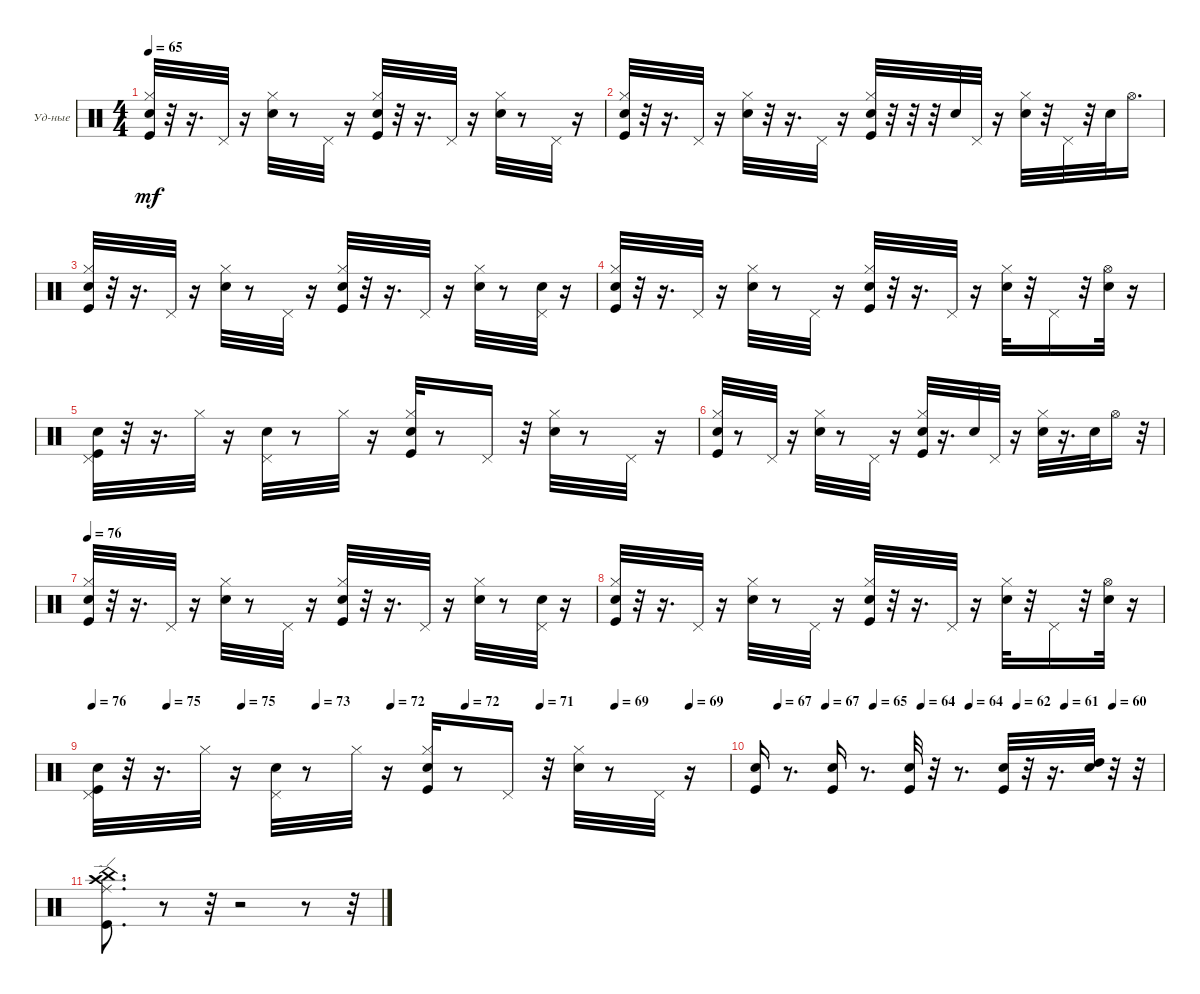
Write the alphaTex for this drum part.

\bracketExtendMode groupsimilarinstruments
\firstSystemTrackNameOrientation horizontal
\otherSystemsTrackNameOrientation horizontal
\track ("Ударные" "Уд-ные") {instrument percussion}
\staff {score}
\articulation defaults
\ts (4 4)
\tempo 65
\clef neutral
\ks c
("Kick (hit)" "Hi-Hat (closed)" "Snare (hit) 2").32{dy mf} r.32 r.16{d} "Pedal Hi-Hat (hit)".32 r.16 ("Hi-Hat (closed)" "Snare (hit) 2").32 r.8 "Pedal Hi-Hat (hit)".32 r.16 ("Kick (hit)" "Hi-Hat (closed)" "Snare (hit) 2").32 r.32 r.16{d} "Pedal Hi-Hat (hit)".32 r.16 ("Hi-Hat (closed)" "Snare (hit) 2").32 r.8 "Pedal Hi-Hat (hit)".32 r.16 |
("Kick (hit)" "Hi-Hat (closed)" "Snare (hit) 2").32 r.32 r.16{d} "Pedal Hi-Hat (hit)".32 r.16 ("Hi-Hat (closed)" "Snare (hit) 2").32 r.32 r.16{d} "Pedal Hi-Hat (hit)".32 r.16 ("Hi-Hat (closed)" "Kick (hit)" "Snare (hit) 2").32 r.32 r.32 r.32 "Snare (hit) 2".32 "Pedal Hi-Hat (hit)".32 r.16 ("Hi-Hat (closed)" "Snare (hit) 2").32 r.32 "Pedal Hi-Hat (hit)".32 r.32 "Snare (hit) 2".32 "Hi-Hat (open)".16{d} |
("Kick (hit)" "Hi-Hat (closed)" "Snare (hit) 2").32 r.32 r.16{d} "Pedal Hi-Hat (hit)".32 r.16 ("Hi-Hat (closed)" "Snare (hit) 2").32 r.8 "Pedal Hi-Hat (hit)".32 r.16 ("Hi-Hat (closed)" "Kick (hit)" "Snare (hit) 2").32 r.32 r.16{d} "Pedal Hi-Hat (hit)".32 r.16 ("Hi-Hat (closed)" "Snare (hit) 2").32 r.8 ("Pedal Hi-Hat (hit)" "Snare (hit) 2").32 r.16 |
("Kick (hit)" "Hi-Hat (closed)" "Snare (hit) 2").32 r.32 r.16{d} "Pedal Hi-Hat (hit)".32 r.16 ("Hi-Hat (closed)" "Snare (hit) 2").32 r.8 "Pedal Hi-Hat (hit)".32 r.16 ("Kick (hit)" "Hi-Hat (closed)" "Snare (hit) 2").32 r.32 r.16{d} "Pedal Hi-Hat (hit)".32 r.16 ("Hi-Hat (closed)" "Snare (hit) 2").32 r.32 "Pedal Hi-Hat (hit)".16 r.32 ("Hi-Hat (open)" "Snare (hit) 2").32 r.16 |
("Kick (hit)" "Pedal Hi-Hat (hit)" "Snare (hit) 2").32 r.32 r.16{d} "Hi-Hat (closed)".32 r.16 ("Pedal Hi-Hat (hit)" "Snare (hit) 2").32 r.8 "Hi-Hat (closed)".32 r.16 ("Hi-Hat (closed)" "Kick (hit)" "Snare (hit) 2").32 r.8 "Pedal Hi-Hat (hit)".16 r.32 ("Hi-Hat (closed)" "Snare (hit) 2").32 r.8 "Pedal Hi-Hat (hit)".32 r.16 |
("Kick (hit)" "Hi-Hat (closed)" "Snare (hit) 2").32 r.8 "Pedal Hi-Hat (hit)".32 r.16 ("Hi-Hat (closed)" "Snare (hit) 2").32 r.8 "Pedal Hi-Hat (hit)".32 r.16 ("Kick (hit)" "Hi-Hat (closed)" "Snare (hit) 2").32 r.16{d} "Snare (hit) 2".32 "Pedal Hi-Hat (hit)".32 r.16 ("Hi-Hat (closed)" "Snare (hit) 2").32 r.16{d} "Snare (hit) 2".32 "Hi-Hat (open)".16 r.32 |
\tempo 76
("Kick (hit)" "Hi-Hat (closed)" "Snare (hit) 2").32 r.32 r.16{d} "Pedal Hi-Hat (hit)".32 r.16 ("Hi-Hat (closed)" "Snare (hit) 2").32 r.8 "Pedal Hi-Hat (hit)".32 r.16 ("Hi-Hat (closed)" "Kick (hit)" "Snare (hit) 2").32 r.32 r.16{d} "Pedal Hi-Hat (hit)".32 r.16 ("Hi-Hat (closed)" "Snare (hit) 2").32 r.8 ("Pedal Hi-Hat (hit)" "Snare (hit) 2").32 r.16 |
("Kick (hit)" "Hi-Hat (closed)" "Snare (hit) 2").32 r.32 r.16{d} "Pedal Hi-Hat (hit)".32 r.16 ("Hi-Hat (closed)" "Snare (hit) 2").32 r.8 "Pedal Hi-Hat (hit)".32 r.16 ("Kick (hit)" "Hi-Hat (closed)" "Snare (hit) 2").32 r.32 r.16{d} "Pedal Hi-Hat (hit)".32 r.16 ("Hi-Hat (closed)" "Snare (hit) 2").32 r.32 "Pedal Hi-Hat (hit)".16 r.32 ("Hi-Hat (open)" "Snare (hit) 2").32 r.16 |
\tempo 76
\tempo (75 0.117188)
\tempo (75 0.234375)
\tempo (73 0.351563)
\tempo (72 0.46875)
\tempo (72 0.585938)
\tempo (71 0.703125)
\tempo (69 0.820313)
\tempo (69 0.9375)
("Kick (hit)" "Pedal Hi-Hat (hit)" "Snare (hit) 2").32 r.32 r.16{d} "Hi-Hat (closed)".32 r.16 ("Pedal Hi-Hat (hit)" "Snare (hit) 2").32 r.8 "Hi-Hat (closed)".32 r.16 ("Hi-Hat (closed)" "Kick (hit)" "Snare (hit) 2").32 r.8 "Pedal Hi-Hat (hit)".16 r.32 ("Hi-Hat (closed)" "Snare (hit) 2").32 r.8 "Pedal Hi-Hat (hit)".32 r.16 |
\tempo (67 0.0572917)
\tempo (67 0.174479)
\tempo (65 0.291667)
\tempo (64 0.408854)
\tempo (64 0.526042)
\tempo (62 0.643229)
\tempo (61 0.760417)
\tempo (60 0.877604)
("Kick (hit)" "Snare (hit) 2").16 r.8{d} ("Kick (hit)" "Snare (hit) 2").16 r.8{d} ("Kick (hit)" "Snare (hit) 2").32 r.32 r.8{d} ("Kick (hit)" "Snare (hit) 2").32 r.32 r.16{d} ("Snare (hit) 2" "High Tom (hit)").32 r.32 r.32 |
("Kick (hit)" "Crash high (hit)" "Ride (edge)" "China (hit)").8{d} r.8 r.32 r.2 r.8 r.32
